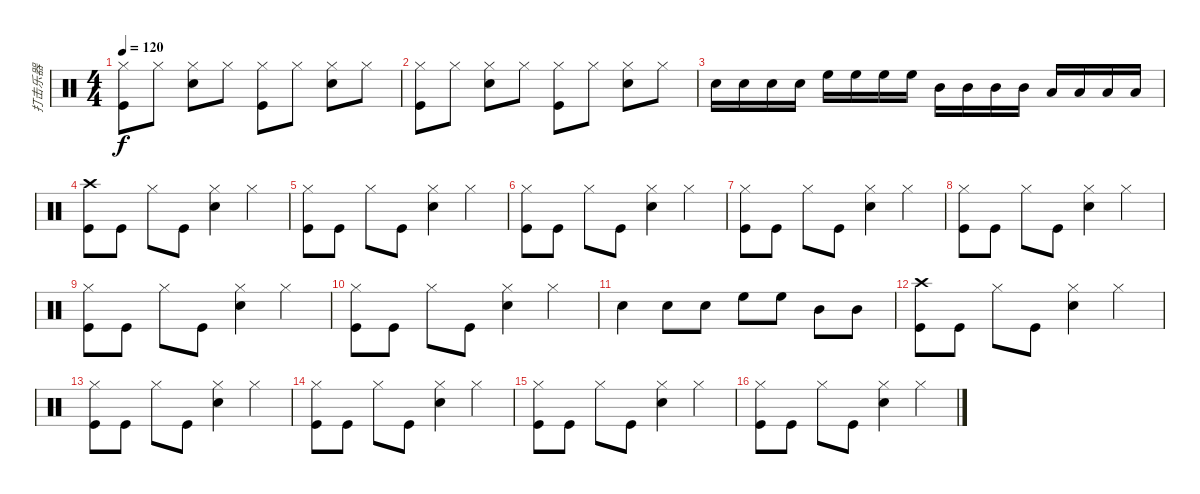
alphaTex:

\track ("打击乐器" "打击乐器") {instrument percussion}
\staff {score}
\articulation defaults
\ts (4 4)
\tempo 120
\clef neutral
\ks c
("Hi-Hat (closed)" "Kick (hit)").8{dy f} "Hi-Hat (closed)".8 ("Hi-Hat (closed)" "Electric Snare (hit)").8 "Hi-Hat (closed)".8 ("Hi-Hat (closed)" "Kick (hit)").8 "Hi-Hat (closed)".8 ("Hi-Hat (closed)" "Electric Snare (hit)").8 "Hi-Hat (closed)".8 |
("Hi-Hat (closed)" "Kick (hit)").8 "Hi-Hat (closed)".8 ("Hi-Hat (closed)" "Electric Snare (hit)").8 "Hi-Hat (closed)".8 ("Hi-Hat (closed)" "Kick (hit)").8 "Hi-Hat (closed)".8 ("Hi-Hat (closed)" "Electric Snare (hit)").8 "Hi-Hat (closed)".8 |
"Electric Snare (hit)".16 "Electric Snare (hit)".16 "Electric Snare (hit)".16 "Electric Snare (hit)".16 "High Floor Tom (hit)".16 "High Floor Tom (hit)".16 "High Floor Tom (hit)".16 "High Floor Tom (hit)".16 "Mid Tom (hit)".16 "Mid Tom (hit)".16 "Mid Tom (hit)".16 "Mid Tom (hit)".16 "Low Floor Tom (hit)".16 "Low Floor Tom (hit)".16 "Low Floor Tom (hit)".16 "Low Floor Tom (hit)".16 |
("Crash high (hit)" "Kick (hit)").8 "Kick (hit)".8 "Hi-Hat (closed)".8 "Kick (hit)".8 ("Hi-Hat (closed)" "Electric Snare (hit)").4 "Hi-Hat (closed)".4 |
("Hi-Hat (closed)" "Kick (hit)").8 "Kick (hit)".8 "Hi-Hat (closed)".8 "Kick (hit)".8 ("Hi-Hat (closed)" "Electric Snare (hit)").4 "Hi-Hat (closed)".4 |
("Hi-Hat (closed)" "Kick (hit)").8 "Kick (hit)".8 "Hi-Hat (closed)".8 "Kick (hit)".8 ("Hi-Hat (closed)" "Electric Snare (hit)").4 "Hi-Hat (closed)".4 |
("Hi-Hat (closed)" "Kick (hit)").8 "Kick (hit)".8 "Hi-Hat (closed)".8 "Kick (hit)".8 ("Hi-Hat (closed)" "Electric Snare (hit)").4 "Hi-Hat (closed)".4 |
("Hi-Hat (closed)" "Kick (hit)").8 "Kick (hit)".8 "Hi-Hat (closed)".8 "Kick (hit)".8 ("Hi-Hat (closed)" "Electric Snare (hit)").4 "Hi-Hat (closed)".4 |
("Hi-Hat (closed)" "Kick (hit)").8 "Kick (hit)".8 "Hi-Hat (closed)".8 "Kick (hit)".8 ("Hi-Hat (closed)" "Electric Snare (hit)").4 "Hi-Hat (closed)".4 |
("Hi-Hat (closed)" "Kick (hit)").8 "Kick (hit)".8 "Hi-Hat (closed)".8 "Kick (hit)".8 ("Hi-Hat (closed)" "Electric Snare (hit)").4 "Hi-Hat (closed)".4 |
"Electric Snare (hit)".4 "Electric Snare (hit)".8 "Electric Snare (hit)".8 "High Floor Tom (hit)".8 "High Floor Tom (hit)".8 "Mid Tom (hit)".8 "Mid Tom (hit)".8 |
("Crash high (hit)" "Kick (hit)").8 "Kick (hit)".8 "Hi-Hat (closed)".8 "Kick (hit)".8 ("Hi-Hat (closed)" "Electric Snare (hit)").4 "Hi-Hat (closed)".4 |
("Hi-Hat (closed)" "Kick (hit)").8 "Kick (hit)".8 "Hi-Hat (closed)".8 "Kick (hit)".8 ("Hi-Hat (closed)" "Electric Snare (hit)").4 "Hi-Hat (closed)".4 |
("Hi-Hat (closed)" "Kick (hit)").8 "Kick (hit)".8 "Hi-Hat (closed)".8 "Kick (hit)".8 ("Hi-Hat (closed)" "Electric Snare (hit)").4 "Hi-Hat (closed)".4 |
("Hi-Hat (closed)" "Kick (hit)").8 "Kick (hit)".8 "Hi-Hat (closed)".8 "Kick (hit)".8 ("Hi-Hat (closed)" "Electric Snare (hit)").4 "Hi-Hat (closed)".4 |
("Hi-Hat (closed)" "Kick (hit)").8 "Kick (hit)".8 "Hi-Hat (closed)".8 "Kick (hit)".8 ("Hi-Hat (closed)" "Electric Snare (hit)").4 "Hi-Hat (closed)".4
